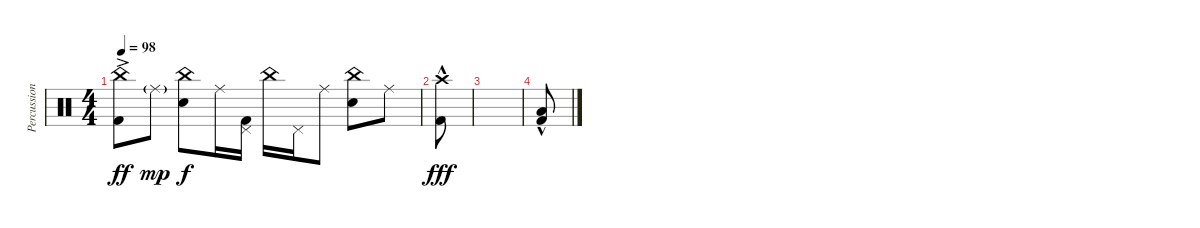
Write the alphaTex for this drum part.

\track ("Percussion" "Percussion") {instrument percussion}
\staff {score}
\articulation defaults
\ts (4 4)
\tempo 98
\clef neutral
\ks c
("China (hit)" "Kick (hit) 2"{ac}).8{dy ff} "Ride (middle)"{g}.8{dy mp} ("China (hit)" "Electric Snare (hit)").8{dy f} "Ride (middle)".16 ("Pedal Hi-Hat (hit)" "Kick (hit) 2").16 "China (hit)".16 "Pedal Hi-Hat (hit)".16 "Ride (middle)".8 ("China (hit)" "Electric Snare (hit)").8 "Ride (middle)".8 |
("Crash high (hit)" "Kick (hit) 2"{hac}).8{dy fff} |
|
("Low Floor Tom (hit)"{hac} "Kick (hit) 2").8
